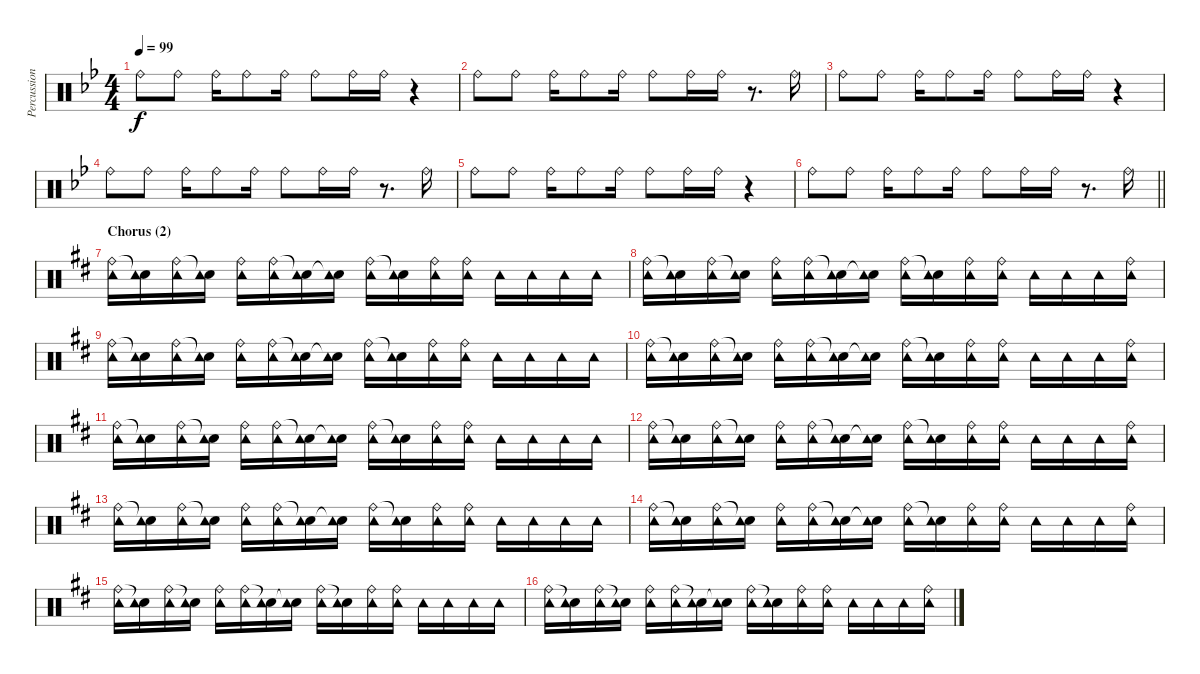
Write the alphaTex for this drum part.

\track ("Percussion" "Percussion") {instrument percussion}
\staff {score}
\articulation defaults
\ts (4 4)
\tempo 99
\clef neutral
\ks gminor "Ride (bell)".8{dy f} "Ride (bell)".8 "Ride (bell)".16 "Ride (bell)".8 "Ride (bell)".16 "Ride (bell)".8 "Ride (bell)".16 "Ride (bell)".16
r.4 |
"Ride (bell)".8 "Ride (bell)".8 "Ride (bell)".16 "Ride (bell)".8 "Ride (bell)".16 "Ride (bell)".8 "Ride (bell)".16 "Ride (bell)".16 r.8{d} "Ride (bell)".16 |
"Ride (bell)".8 "Ride (bell)".8 "Ride (bell)".16 "Ride (bell)".8 "Ride (bell)".16 "Ride (bell)".8 "Ride (bell)".16 "Ride (bell)".16 r.4 |
"Ride (bell)".8 "Ride (bell)".8 "Ride (bell)".16 "Ride (bell)".8 "Ride (bell)".16 "Ride (bell)".8 "Ride (bell)".16 "Ride (bell)".16 r.8{d} "Ride (bell)".16 |
"Ride (bell)".8 "Ride (bell)".8 "Ride (bell)".16 "Ride (bell)".8 "Ride (bell)".16 "Ride (bell)".8 "Ride (bell)".16 "Ride (bell)".16 r.4 |
\barLineRight lightlight "Ride (bell)".8 "Ride (bell)".8 "Ride (bell)".16 "Ride (bell)".8 "Ride (bell)".16 "Ride (bell)".8 "Ride (bell)".16 "Ride (bell)".16
r.8{d} "Ride (bell)".16 |
\section ("" "Chorus (2)")
\ks d
("Ride (bell)" "Tambourine (hit)").16 ("Snare (hit)"{t} "Tambourine (hit)").16 ("Ride (bell)" "Tambourine (hit)").16 ("Snare (hit)"{t} "Tambourine (hit)").16 ("Ride (bell)" "Tambourine (hit)").16 ("Ride (bell)" "Tambourine (hit)").16 ("Snare (hit)"{t} "Tambourine (hit)").16 ("Snare (hit)"{t} "Tambourine (hit)").16 ("Ride (bell)" "Tambourine (hit)").16 ("Snare (hit)"{t} "Tambourine (hit)").16 ("Ride (bell)" "Tambourine (hit)").16 ("Ride (bell)" "Tambourine (hit)").16 "Tambourine (hit)".16 "Tambourine (hit)".16 "Tambourine (hit)".16 "Tambourine (hit)".16 |
("Ride (bell)" "Tambourine (hit)").16 ("Snare (hit)"{t} "Tambourine (hit)").16 ("Ride (bell)" "Tambourine (hit)").16 ("Snare (hit)"{t} "Tambourine (hit)").16 ("Ride (bell)" "Tambourine (hit)").16 ("Ride (bell)" "Tambourine (hit)").16 ("Snare (hit)"{t} "Tambourine (hit)").16 ("Snare (hit)"{t} "Tambourine (hit)").16 ("Ride (bell)" "Tambourine (hit)").16 ("Snare (hit)"{t} "Tambourine (hit)").16 ("Ride (bell)" "Tambourine (hit)").16 ("Ride (bell)" "Tambourine (hit)").16 "Tambourine (hit)".16 "Tambourine (hit)".16 "Tambourine (hit)".16 ("Ride (bell)" "Tambourine (hit)").16 |
("Ride (bell)" "Tambourine (hit)").16 ("Snare (hit)"{t} "Tambourine (hit)").16 ("Ride (bell)" "Tambourine (hit)").16 ("Snare (hit)"{t} "Tambourine (hit)").16 ("Ride (bell)" "Tambourine (hit)").16 ("Ride (bell)" "Tambourine (hit)").16 ("Snare (hit)"{t} "Tambourine (hit)").16 ("Snare (hit)"{t} "Tambourine (hit)").16 ("Ride (bell)" "Tambourine (hit)").16 ("Snare (hit)"{t} "Tambourine (hit)").16 ("Ride (bell)" "Tambourine (hit)").16 ("Ride (bell)" "Tambourine (hit)").16 "Tambourine (hit)".16 "Tambourine (hit)".16 "Tambourine (hit)".16 "Tambourine (hit)".16 |
("Ride (bell)" "Tambourine (hit)").16 ("Snare (hit)"{t} "Tambourine (hit)").16 ("Ride (bell)" "Tambourine (hit)").16 ("Snare (hit)"{t} "Tambourine (hit)").16 ("Ride (bell)" "Tambourine (hit)").16 ("Ride (bell)" "Tambourine (hit)").16 ("Snare (hit)"{t} "Tambourine (hit)").16 ("Snare (hit)"{t} "Tambourine (hit)").16 ("Ride (bell)" "Tambourine (hit)").16 ("Snare (hit)"{t} "Tambourine (hit)").16 ("Ride (bell)" "Tambourine (hit)").16 ("Ride (bell)" "Tambourine (hit)").16 "Tambourine (hit)".16 "Tambourine (hit)".16 "Tambourine (hit)".16 ("Ride (bell)" "Tambourine (hit)").16 |
("Ride (bell)" "Tambourine (hit)").16 ("Snare (hit)"{t} "Tambourine (hit)").16 ("Ride (bell)" "Tambourine (hit)").16 ("Snare (hit)"{t} "Tambourine (hit)").16 ("Ride (bell)" "Tambourine (hit)").16 ("Ride (bell)" "Tambourine (hit)").16 ("Snare (hit)"{t} "Tambourine (hit)").16 ("Snare (hit)"{t} "Tambourine (hit)").16 ("Ride (bell)" "Tambourine (hit)").16 ("Snare (hit)"{t} "Tambourine (hit)").16 ("Ride (bell)" "Tambourine (hit)").16 ("Ride (bell)" "Tambourine (hit)").16 "Tambourine (hit)".16 "Tambourine (hit)".16 "Tambourine (hit)".16 "Tambourine (hit)".16 |
("Ride (bell)" "Tambourine (hit)").16 ("Snare (hit)"{t} "Tambourine (hit)").16 ("Ride (bell)" "Tambourine (hit)").16 ("Snare (hit)"{t} "Tambourine (hit)").16 ("Ride (bell)" "Tambourine (hit)").16 ("Ride (bell)" "Tambourine (hit)").16 ("Snare (hit)"{t} "Tambourine (hit)").16 ("Snare (hit)"{t} "Tambourine (hit)").16 ("Ride (bell)" "Tambourine (hit)").16 ("Snare (hit)"{t} "Tambourine (hit)").16 ("Ride (bell)" "Tambourine (hit)").16 ("Ride (bell)" "Tambourine (hit)").16 "Tambourine (hit)".16 "Tambourine (hit)".16 "Tambourine (hit)".16 ("Ride (bell)" "Tambourine (hit)").16 |
("Ride (bell)" "Tambourine (hit)").16 ("Snare (hit)"{t} "Tambourine (hit)").16 ("Ride (bell)" "Tambourine (hit)").16 ("Snare (hit)"{t} "Tambourine (hit)").16 ("Ride (bell)" "Tambourine (hit)").16 ("Ride (bell)" "Tambourine (hit)").16 ("Snare (hit)"{t} "Tambourine (hit)").16 ("Snare (hit)"{t} "Tambourine (hit)").16 ("Ride (bell)" "Tambourine (hit)").16 ("Snare (hit)"{t} "Tambourine (hit)").16 ("Ride (bell)" "Tambourine (hit)").16 ("Ride (bell)" "Tambourine (hit)").16 "Tambourine (hit)".16 "Tambourine (hit)".16 "Tambourine (hit)".16 "Tambourine (hit)".16 |
("Ride (bell)" "Tambourine (hit)").16 ("Snare (hit)"{t} "Tambourine (hit)").16 ("Ride (bell)" "Tambourine (hit)").16 ("Snare (hit)"{t} "Tambourine (hit)").16 ("Ride (bell)" "Tambourine (hit)").16 ("Ride (bell)" "Tambourine (hit)").16 ("Snare (hit)"{t} "Tambourine (hit)").16 ("Snare (hit)"{t} "Tambourine (hit)").16 ("Ride (bell)" "Tambourine (hit)").16 ("Snare (hit)"{t} "Tambourine (hit)").16 ("Ride (bell)" "Tambourine (hit)").16 ("Ride (bell)" "Tambourine (hit)").16 "Tambourine (hit)".16 "Tambourine (hit)".16 "Tambourine (hit)".16 ("Ride (bell)" "Tambourine (hit)").16 |
("Ride (bell)" "Tambourine (hit)").16 ("Snare (hit)"{t} "Tambourine (hit)").16 ("Ride (bell)" "Tambourine (hit)").16 ("Snare (hit)"{t} "Tambourine (hit)").16 ("Ride (bell)" "Tambourine (hit)").16 ("Ride (bell)" "Tambourine (hit)").16 ("Snare (hit)"{t} "Tambourine (hit)").16 ("Snare (hit)"{t} "Tambourine (hit)").16 ("Ride (bell)" "Tambourine (hit)").16 ("Snare (hit)"{t} "Tambourine (hit)").16 ("Ride (bell)" "Tambourine (hit)").16 ("Ride (bell)" "Tambourine (hit)").16 "Tambourine (hit)".16 "Tambourine (hit)".16 "Tambourine (hit)".16 "Tambourine (hit)".16 |
("Ride (bell)" "Tambourine (hit)").16 ("Snare (hit)"{t} "Tambourine (hit)").16 ("Ride (bell)" "Tambourine (hit)").16 ("Snare (hit)"{t} "Tambourine (hit)").16 ("Ride (bell)" "Tambourine (hit)").16 ("Ride (bell)" "Tambourine (hit)").16 ("Snare (hit)"{t} "Tambourine (hit)").16 ("Snare (hit)"{t} "Tambourine (hit)").16 ("Ride (bell)" "Tambourine (hit)").16 ("Snare (hit)"{t} "Tambourine (hit)").16 ("Ride (bell)" "Tambourine (hit)").16 ("Ride (bell)" "Tambourine (hit)").16 "Tambourine (hit)".16 "Tambourine (hit)".16 "Tambourine (hit)".16 ("Ride (bell)" "Tambourine (hit)").16
